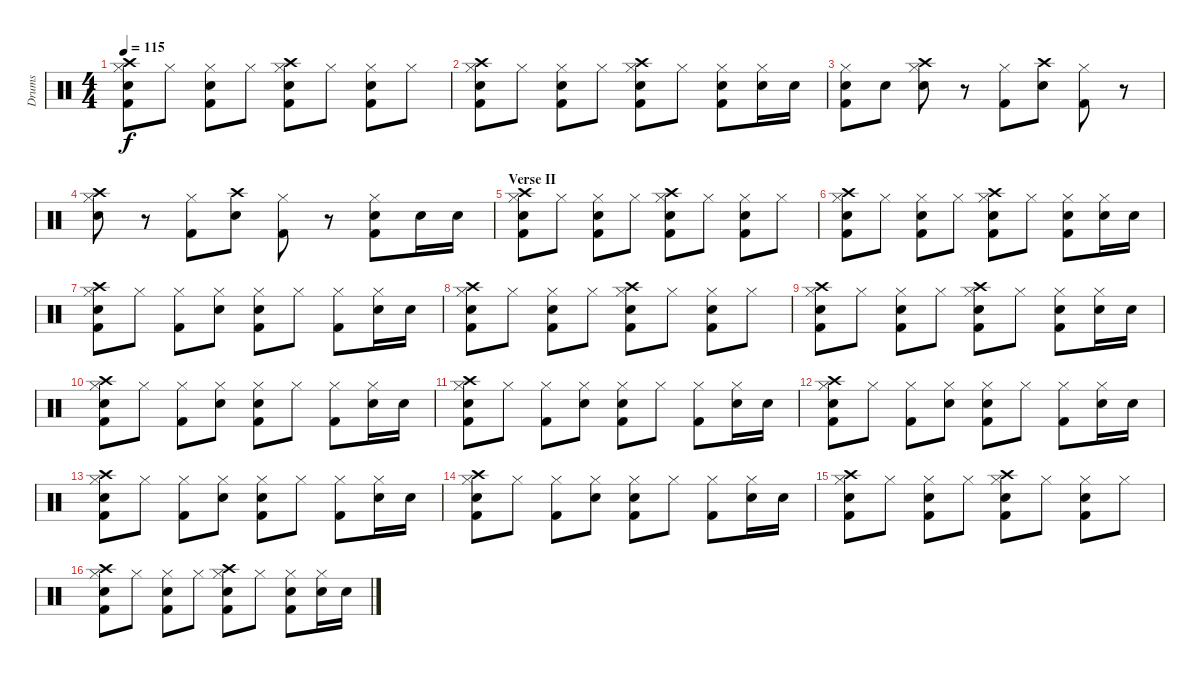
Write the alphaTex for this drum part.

\track ("Drums" "Drums") {instrument percussion}
\staff {score}
\articulation defaults
\ts (4 4)
\tempo 115
\clef neutral
\ks c
("Hi-Hat (closed)" "Kick (hit) 2" "Snare (hit) 2" "Crash high (hit)").8{dy f} "Hi-Hat (closed)".8 ("Hi-Hat (closed)" "Kick (hit) 2" "Snare (hit) 2").8 "Hi-Hat (closed)".8 ("Hi-Hat (closed)" "Kick (hit) 2" "Snare (hit) 2" "Crash high (hit)").8 "Hi-Hat (closed)".8 ("Hi-Hat (closed)" "Kick (hit) 2" "Snare (hit) 2").8 "Hi-Hat (closed)".8 |
("Hi-Hat (closed)" "Kick (hit) 2" "Snare (hit) 2" "Crash high (hit)").8 "Hi-Hat (closed)".8 ("Hi-Hat (closed)" "Kick (hit) 2" "Snare (hit) 2").8 "Hi-Hat (closed)".8 ("Hi-Hat (closed)" "Kick (hit) 2" "Snare (hit) 2" "Crash high (hit)").8 "Hi-Hat (closed)".8 ("Hi-Hat (closed)" "Kick (hit) 2" "Snare (hit) 2").8 ("Hi-Hat (closed)" "Snare (hit) 2").16 "Snare (hit) 2".16 |
("Hi-Hat (closed)" "Kick (hit) 2" "Snare (hit) 2").8 "Snare (hit) 2".8 ("Hi-Hat (closed)" "Crash high (hit)" "Snare (hit) 2").8 r.8 ("Hi-Hat (closed)" "Kick (hit) 2").8 ("Crash high (hit)" "Snare (hit) 2").8 ("Hi-Hat (closed)" "Kick (hit) 2").8 r.8 |
("Hi-Hat (closed)" "Crash high (hit)" "Snare (hit) 2").8 r.8 ("Hi-Hat (closed)" "Kick (hit) 2").8 ("Crash high (hit)" "Snare (hit) 2").8 ("Hi-Hat (closed)" "Kick (hit) 2").8 r.8 ("Hi-Hat (closed)" "Kick (hit) 2" "Snare (hit) 2").8 "Snare (hit) 2".16 "Snare (hit) 2".16 |
\section ("" "Verse II")
("Hi-Hat (closed)" "Kick (hit) 2" "Snare (hit) 2" "Crash high (hit)").8 "Hi-Hat (closed)".8 ("Hi-Hat (closed)" "Kick (hit) 2" "Snare (hit) 2").8 "Hi-Hat (closed)".8 ("Hi-Hat (closed)" "Kick (hit) 2" "Snare (hit) 2" "Crash high (hit)").8 "Hi-Hat (closed)".8 ("Hi-Hat (closed)" "Kick (hit) 2" "Snare (hit) 2").8 "Hi-Hat (closed)".8 |
("Hi-Hat (closed)" "Kick (hit) 2" "Snare (hit) 2" "Crash high (hit)").8 "Hi-Hat (closed)".8 ("Hi-Hat (closed)" "Kick (hit) 2" "Snare (hit) 2").8 "Hi-Hat (closed)".8 ("Hi-Hat (closed)" "Kick (hit) 2" "Snare (hit) 2" "Crash high (hit)").8 "Hi-Hat (closed)".8 ("Hi-Hat (closed)" "Kick (hit) 2" "Snare (hit) 2").8 ("Hi-Hat (closed)" "Snare (hit) 2").16 "Snare (hit) 2".16 |
("Hi-Hat (closed)" "Kick (hit) 2" "Snare (hit) 2" "Crash high (hit)").8 "Hi-Hat (closed)".8 ("Hi-Hat (closed)" "Kick (hit) 2").8 ("Hi-Hat (closed)" "Snare (hit) 2").8 ("Hi-Hat (closed)" "Kick (hit) 2" "Snare (hit) 2").8 "Hi-Hat (closed)".8 ("Hi-Hat (closed)" "Kick (hit) 2").8 ("Hi-Hat (closed)" "Snare (hit) 2").16 "Snare (hit) 2".16 |
("Hi-Hat (closed)" "Kick (hit) 2" "Snare (hit) 2" "Crash high (hit)").8 "Hi-Hat (closed)".8 ("Hi-Hat (closed)" "Kick (hit) 2" "Snare (hit) 2").8 "Hi-Hat (closed)".8 ("Hi-Hat (closed)" "Kick (hit) 2" "Snare (hit) 2" "Crash high (hit)").8 "Hi-Hat (closed)".8 ("Hi-Hat (closed)" "Kick (hit) 2" "Snare (hit) 2").8 "Hi-Hat (closed)".8 |
("Hi-Hat (closed)" "Kick (hit) 2" "Snare (hit) 2" "Crash high (hit)").8 "Hi-Hat (closed)".8 ("Hi-Hat (closed)" "Kick (hit) 2" "Snare (hit) 2").8 "Hi-Hat (closed)".8 ("Hi-Hat (closed)" "Kick (hit) 2" "Snare (hit) 2" "Crash high (hit)").8 "Hi-Hat (closed)".8 ("Hi-Hat (closed)" "Kick (hit) 2" "Snare (hit) 2").8 ("Hi-Hat (closed)" "Snare (hit) 2").16 "Snare (hit) 2".16 |
("Hi-Hat (closed)" "Kick (hit) 2" "Snare (hit) 2" "Crash high (hit)").8 "Hi-Hat (closed)".8 ("Hi-Hat (closed)" "Kick (hit) 2").8 ("Hi-Hat (closed)" "Snare (hit) 2").8 ("Hi-Hat (closed)" "Kick (hit) 2" "Snare (hit) 2").8 "Hi-Hat (closed)".8 ("Hi-Hat (closed)" "Kick (hit) 2").8 ("Hi-Hat (closed)" "Snare (hit) 2").16 "Snare (hit) 2".16 |
("Hi-Hat (closed)" "Kick (hit) 2" "Snare (hit) 2" "Crash high (hit)").8 "Hi-Hat (closed)".8 ("Hi-Hat (closed)" "Kick (hit) 2").8 ("Hi-Hat (closed)" "Snare (hit) 2").8 ("Hi-Hat (closed)" "Kick (hit) 2" "Snare (hit) 2").8 "Hi-Hat (closed)".8 ("Hi-Hat (closed)" "Kick (hit) 2").8 ("Hi-Hat (closed)" "Snare (hit) 2").16 "Snare (hit) 2".16 |
("Hi-Hat (closed)" "Kick (hit) 2" "Snare (hit) 2" "Crash high (hit)").8 "Hi-Hat (closed)".8 ("Hi-Hat (closed)" "Kick (hit) 2").8 ("Hi-Hat (closed)" "Snare (hit) 2").8 ("Hi-Hat (closed)" "Kick (hit) 2" "Snare (hit) 2").8 "Hi-Hat (closed)".8 ("Hi-Hat (closed)" "Kick (hit) 2").8 ("Hi-Hat (closed)" "Snare (hit) 2").16 "Snare (hit) 2".16 |
("Hi-Hat (closed)" "Kick (hit) 2" "Snare (hit) 2" "Crash high (hit)").8 "Hi-Hat (closed)".8 ("Hi-Hat (closed)" "Kick (hit) 2").8 ("Hi-Hat (closed)" "Snare (hit) 2").8 ("Hi-Hat (closed)" "Kick (hit) 2" "Snare (hit) 2").8 "Hi-Hat (closed)".8 ("Hi-Hat (closed)" "Kick (hit) 2").8 ("Hi-Hat (closed)" "Snare (hit) 2").16 "Snare (hit) 2".16 |
("Hi-Hat (closed)" "Kick (hit) 2" "Snare (hit) 2" "Crash high (hit)").8 "Hi-Hat (closed)".8 ("Hi-Hat (closed)" "Kick (hit) 2").8 ("Hi-Hat (closed)" "Snare (hit) 2").8 ("Hi-Hat (closed)" "Kick (hit) 2" "Snare (hit) 2").8 "Hi-Hat (closed)".8 ("Hi-Hat (closed)" "Kick (hit) 2").8 ("Hi-Hat (closed)" "Snare (hit) 2").16 "Snare (hit) 2".16 |
("Hi-Hat (closed)" "Kick (hit) 2" "Snare (hit) 2" "Crash high (hit)").8 "Hi-Hat (closed)".8 ("Hi-Hat (closed)" "Kick (hit) 2" "Snare (hit) 2").8 "Hi-Hat (closed)".8 ("Hi-Hat (closed)" "Kick (hit) 2" "Snare (hit) 2" "Crash high (hit)").8 "Hi-Hat (closed)".8 ("Hi-Hat (closed)" "Kick (hit) 2" "Snare (hit) 2").8 "Hi-Hat (closed)".8 |
("Hi-Hat (closed)" "Kick (hit) 2" "Snare (hit) 2" "Crash high (hit)").8 "Hi-Hat (closed)".8 ("Hi-Hat (closed)" "Kick (hit) 2" "Snare (hit) 2").8 "Hi-Hat (closed)".8 ("Hi-Hat (closed)" "Kick (hit) 2" "Snare (hit) 2" "Crash high (hit)").8 "Hi-Hat (closed)".8 ("Hi-Hat (closed)" "Kick (hit) 2" "Snare (hit) 2").8 ("Hi-Hat (closed)" "Snare (hit) 2").16 "Snare (hit) 2".16
